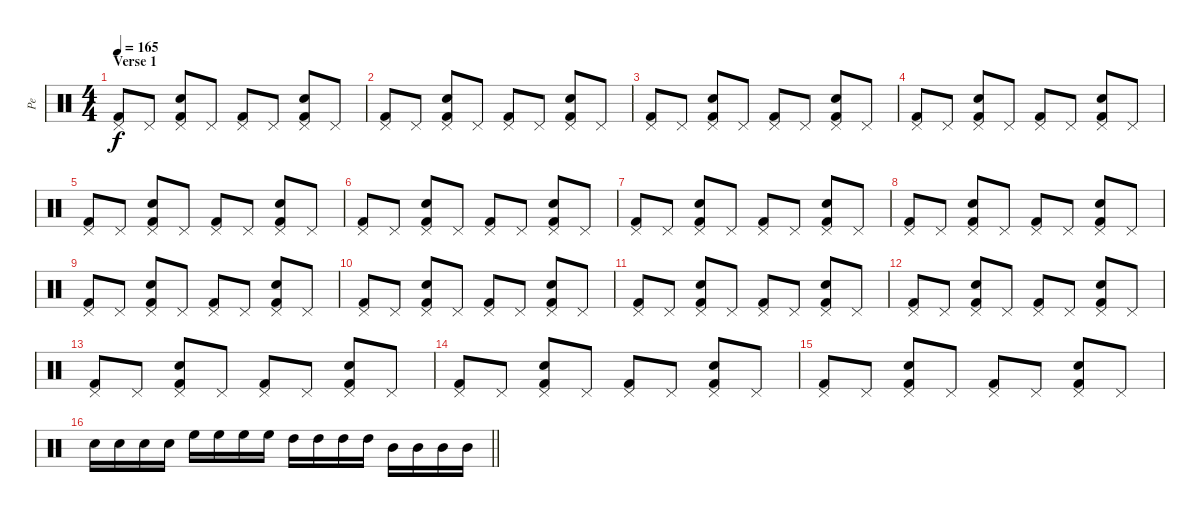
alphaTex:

\track ("Pe" "Pe") {instrument percussion}
\staff {score}
\articulation defaults
\ts (4 4)
\section ("" "Verse 1")
\tempo 165
\clef neutral
\ks c
("Pedal Hi-Hat (hit)" "Kick (hit) 2").8{dy f} "Pedal Hi-Hat (hit)".8 ("Electric Snare (hit)" "Pedal Hi-Hat (hit)" "Kick (hit) 2").8 "Pedal Hi-Hat (hit)".8 ("Pedal Hi-Hat (hit)" "Kick (hit) 2").8 "Pedal Hi-Hat (hit)".8 ("Electric Snare (hit)" "Pedal Hi-Hat (hit)" "Kick (hit) 2").8 "Pedal Hi-Hat (hit)".8 |
("Pedal Hi-Hat (hit)" "Kick (hit) 2").8 "Pedal Hi-Hat (hit)".8 ("Electric Snare (hit)" "Pedal Hi-Hat (hit)" "Kick (hit) 2").8 "Pedal Hi-Hat (hit)".8 ("Pedal Hi-Hat (hit)" "Kick (hit) 2").8 "Pedal Hi-Hat (hit)".8 ("Electric Snare (hit)" "Pedal Hi-Hat (hit)" "Kick (hit) 2").8 "Pedal Hi-Hat (hit)".8 |
("Pedal Hi-Hat (hit)" "Kick (hit) 2").8 "Pedal Hi-Hat (hit)".8 ("Electric Snare (hit)" "Pedal Hi-Hat (hit)" "Kick (hit) 2").8 "Pedal Hi-Hat (hit)".8 ("Pedal Hi-Hat (hit)" "Kick (hit) 2").8 "Pedal Hi-Hat (hit)".8 ("Electric Snare (hit)" "Pedal Hi-Hat (hit)" "Kick (hit) 2").8 "Pedal Hi-Hat (hit)".8 |
("Pedal Hi-Hat (hit)" "Kick (hit) 2").8 "Pedal Hi-Hat (hit)".8 ("Electric Snare (hit)" "Pedal Hi-Hat (hit)" "Kick (hit) 2").8 "Pedal Hi-Hat (hit)".8 ("Pedal Hi-Hat (hit)" "Kick (hit) 2").8 "Pedal Hi-Hat (hit)".8 ("Electric Snare (hit)" "Pedal Hi-Hat (hit)" "Kick (hit) 2").8 "Pedal Hi-Hat (hit)".8 |
("Pedal Hi-Hat (hit)" "Kick (hit) 2").8 "Pedal Hi-Hat (hit)".8 ("Electric Snare (hit)" "Pedal Hi-Hat (hit)" "Kick (hit) 2").8 "Pedal Hi-Hat (hit)".8 ("Pedal Hi-Hat (hit)" "Kick (hit) 2").8 "Pedal Hi-Hat (hit)".8 ("Electric Snare (hit)" "Pedal Hi-Hat (hit)" "Kick (hit) 2").8 "Pedal Hi-Hat (hit)".8 |
("Pedal Hi-Hat (hit)" "Kick (hit) 2").8 "Pedal Hi-Hat (hit)".8 ("Electric Snare (hit)" "Pedal Hi-Hat (hit)" "Kick (hit) 2").8 "Pedal Hi-Hat (hit)".8 ("Pedal Hi-Hat (hit)" "Kick (hit) 2").8 "Pedal Hi-Hat (hit)".8 ("Electric Snare (hit)" "Pedal Hi-Hat (hit)" "Kick (hit) 2").8 "Pedal Hi-Hat (hit)".8 |
("Pedal Hi-Hat (hit)" "Kick (hit) 2").8 "Pedal Hi-Hat (hit)".8 ("Electric Snare (hit)" "Pedal Hi-Hat (hit)" "Kick (hit) 2").8 "Pedal Hi-Hat (hit)".8 ("Pedal Hi-Hat (hit)" "Kick (hit) 2").8 "Pedal Hi-Hat (hit)".8 ("Electric Snare (hit)" "Pedal Hi-Hat (hit)" "Kick (hit) 2").8 "Pedal Hi-Hat (hit)".8 |
("Pedal Hi-Hat (hit)" "Kick (hit) 2").8 "Pedal Hi-Hat (hit)".8 ("Electric Snare (hit)" "Pedal Hi-Hat (hit)" "Kick (hit) 2").8 "Pedal Hi-Hat (hit)".8 ("Pedal Hi-Hat (hit)" "Kick (hit) 2").8 "Pedal Hi-Hat (hit)".8 ("Electric Snare (hit)" "Pedal Hi-Hat (hit)" "Kick (hit) 2").8 "Pedal Hi-Hat (hit)".8 |
("Pedal Hi-Hat (hit)" "Kick (hit) 2").8 "Pedal Hi-Hat (hit)".8 ("Electric Snare (hit)" "Pedal Hi-Hat (hit)" "Kick (hit) 2").8 "Pedal Hi-Hat (hit)".8 ("Pedal Hi-Hat (hit)" "Kick (hit) 2").8 "Pedal Hi-Hat (hit)".8 ("Electric Snare (hit)" "Pedal Hi-Hat (hit)" "Kick (hit) 2").8 "Pedal Hi-Hat (hit)".8 |
("Pedal Hi-Hat (hit)" "Kick (hit) 2").8 "Pedal Hi-Hat (hit)".8 ("Electric Snare (hit)" "Pedal Hi-Hat (hit)" "Kick (hit) 2").8 "Pedal Hi-Hat (hit)".8 ("Pedal Hi-Hat (hit)" "Kick (hit) 2").8 "Pedal Hi-Hat (hit)".8 ("Electric Snare (hit)" "Pedal Hi-Hat (hit)" "Kick (hit) 2").8 "Pedal Hi-Hat (hit)".8 |
("Pedal Hi-Hat (hit)" "Kick (hit) 2").8 "Pedal Hi-Hat (hit)".8 ("Electric Snare (hit)" "Pedal Hi-Hat (hit)" "Kick (hit) 2").8 "Pedal Hi-Hat (hit)".8 ("Pedal Hi-Hat (hit)" "Kick (hit) 2").8 "Pedal Hi-Hat (hit)".8 ("Electric Snare (hit)" "Pedal Hi-Hat (hit)" "Kick (hit) 2").8 "Pedal Hi-Hat (hit)".8 |
("Pedal Hi-Hat (hit)" "Kick (hit) 2").8 "Pedal Hi-Hat (hit)".8 ("Electric Snare (hit)" "Pedal Hi-Hat (hit)" "Kick (hit) 2").8 "Pedal Hi-Hat (hit)".8 ("Pedal Hi-Hat (hit)" "Kick (hit) 2").8 "Pedal Hi-Hat (hit)".8 ("Electric Snare (hit)" "Pedal Hi-Hat (hit)" "Kick (hit) 2").8 "Pedal Hi-Hat (hit)".8 |
("Pedal Hi-Hat (hit)" "Kick (hit) 2").8 "Pedal Hi-Hat (hit)".8 ("Electric Snare (hit)" "Pedal Hi-Hat (hit)" "Kick (hit) 2").8 "Pedal Hi-Hat (hit)".8 ("Pedal Hi-Hat (hit)" "Kick (hit) 2").8 "Pedal Hi-Hat (hit)".8 ("Electric Snare (hit)" "Pedal Hi-Hat (hit)" "Kick (hit) 2").8 "Pedal Hi-Hat (hit)".8 |
("Pedal Hi-Hat (hit)" "Kick (hit) 2").8 "Pedal Hi-Hat (hit)".8 ("Electric Snare (hit)" "Pedal Hi-Hat (hit)" "Kick (hit) 2").8 "Pedal Hi-Hat (hit)".8 ("Pedal Hi-Hat (hit)" "Kick (hit) 2").8 "Pedal Hi-Hat (hit)".8 ("Electric Snare (hit)" "Pedal Hi-Hat (hit)" "Kick (hit) 2").8 "Pedal Hi-Hat (hit)".8 |
("Pedal Hi-Hat (hit)" "Kick (hit) 2").8 "Pedal Hi-Hat (hit)".8 ("Electric Snare (hit)" "Pedal Hi-Hat (hit)" "Kick (hit) 2").8 "Pedal Hi-Hat (hit)".8 ("Pedal Hi-Hat (hit)" "Kick (hit) 2").8 "Pedal Hi-Hat (hit)".8 ("Electric Snare (hit)" "Pedal Hi-Hat (hit)" "Kick (hit) 2").8 "Pedal Hi-Hat (hit)".8 |
\barLineRight lightlight "Electric Snare (hit)".16 "Electric Snare (hit)".16 "Electric Snare (hit)".16 "Electric Snare (hit)".16 "High Floor Tom (hit)".16 "High Floor Tom (hit)".16 "High Floor Tom (hit)".16 "High Floor Tom (hit)".16 "High Tom (hit)".16 "High Tom (hit)".16 "High Tom (hit)".16 "High Tom (hit)".16 "Mid Tom (hit)".16 "Mid Tom (hit)".16 "Mid Tom (hit)".16 "Mid Tom (hit)".16
